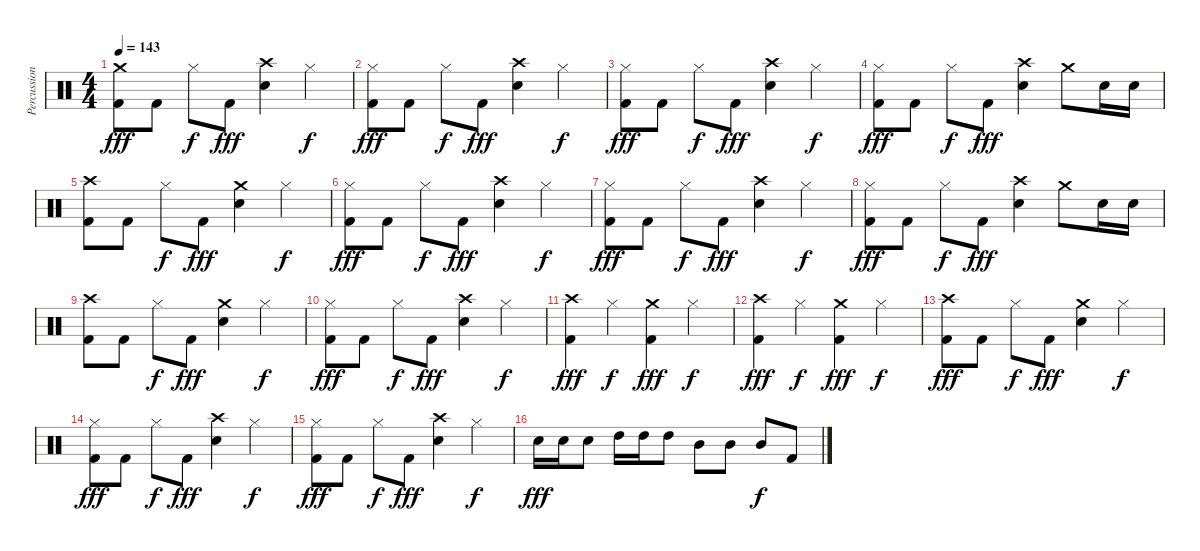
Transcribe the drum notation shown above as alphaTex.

\track ("Percussion" "Percussion") {instrument percussion}
\staff {score}
\articulation defaults
\ts (4 4)
\tempo 143
\clef neutral
\ks c
("Crash medium (hit)" "Kick (hit) 2").8{dy fff} "Kick (hit) 2".8 "Hi-Hat (closed)".8{dy f} "Kick (hit) 2".8{dy fff} ("Crash high (hit)" "Electric Snare (hit)").4 "Hi-Hat (closed)".4{dy f} |
("Hi-Hat (closed)" "Kick (hit) 2").8{dy fff} "Kick (hit) 2".8 "Hi-Hat (closed)".8{dy f} "Kick (hit) 2".8{dy fff} ("Crash high (hit)" "Electric Snare (hit)").4 "Hi-Hat (closed)".4{dy f} |
("Hi-Hat (closed)" "Kick (hit) 2").8{dy fff} "Kick (hit) 2".8 "Hi-Hat (closed)".8{dy f} "Kick (hit) 2".8{dy fff} ("Crash high (hit)" "Electric Snare (hit)").4 "Hi-Hat (closed)".4{dy f} |
("Hi-Hat (closed)" "Kick (hit) 2").8{dy fff} "Kick (hit) 2".8 "Hi-Hat (closed)".8{dy f} "Kick (hit) 2".8{dy fff} ("Crash high (hit)" "Electric Snare (hit)").4 "Crash medium (hit)".8 "Electric Snare (hit)".16 "Electric Snare (hit)".16 |
("Crash high (hit)" "Kick (hit) 2").8 "Kick (hit) 2".8 "Hi-Hat (closed)".8{dy f} "Kick (hit) 2".8{dy fff} ("Crash medium (hit)" "Electric Snare (hit)").4 "Hi-Hat (closed)".4{dy f} |
("Hi-Hat (closed)" "Kick (hit) 2").8{dy fff} "Kick (hit) 2".8 "Hi-Hat (closed)".8{dy f} "Kick (hit) 2".8{dy fff} ("Crash high (hit)" "Electric Snare (hit)").4 "Hi-Hat (closed)".4{dy f} |
("Hi-Hat (closed)" "Kick (hit) 2").8{dy fff} "Kick (hit) 2".8 "Hi-Hat (closed)".8{dy f} "Kick (hit) 2".8{dy fff} ("Crash high (hit)" "Electric Snare (hit)").4 "Hi-Hat (closed)".4{dy f} |
("Hi-Hat (closed)" "Kick (hit) 2").8{dy fff} "Kick (hit) 2".8 "Hi-Hat (closed)".8{dy f} "Kick (hit) 2".8{dy fff} ("Crash high (hit)" "Electric Snare (hit)").4 "Crash medium (hit)".8 "Electric Snare (hit)".16 "Electric Snare (hit)".16 |
("Crash high (hit)" "Kick (hit) 2").8 "Kick (hit) 2".8 "Hi-Hat (closed)".8{dy f} "Kick (hit) 2".8{dy fff} ("Crash medium (hit)" "Electric Snare (hit)").4 "Hi-Hat (closed)".4{dy f} |
("Hi-Hat (closed)" "Kick (hit) 2").8{dy fff} "Kick (hit) 2".8 "Hi-Hat (closed)".8{dy f} "Kick (hit) 2".8{dy fff} ("Crash high (hit)" "Electric Snare (hit)").4 "Hi-Hat (closed)".4{dy f} |
("Crash high (hit)" "Kick (hit) 2").4{dy fff} "Hi-Hat (closed)".4{dy f} ("Crash medium (hit)" "Kick (hit) 2").4{dy fff} "Hi-Hat (closed)".4{dy f} |
("Crash high (hit)" "Kick (hit) 2").4{dy fff} "Hi-Hat (closed)".4{dy f} ("Crash medium (hit)" "Kick (hit) 2").4{dy fff} "Hi-Hat (closed)".4{dy f} |
("Crash high (hit)" "Kick (hit) 2").8{dy fff} "Kick (hit) 2".8 "Hi-Hat (closed)".8{dy f} "Kick (hit) 2".8{dy fff} ("Crash medium (hit)" "Electric Snare (hit)").4 "Hi-Hat (closed)".4{dy f} |
("Hi-Hat (closed)" "Kick (hit) 2").8{dy fff} "Kick (hit) 2".8 "Hi-Hat (closed)".8{dy f} "Kick (hit) 2".8{dy fff} ("Crash high (hit)" "Electric Snare (hit)").4 "Hi-Hat (closed)".4{dy f} |
("Hi-Hat (closed)" "Kick (hit) 2").8{dy fff} "Kick (hit) 2".8 "Hi-Hat (closed)".8{dy f} "Kick (hit) 2".8{dy fff} ("Crash high (hit)" "Electric Snare (hit)").4 "Hi-Hat (closed)".4{dy f} |
"Electric Snare (hit)".16{dy fff} "Electric Snare (hit)".16 "Electric Snare (hit)".8 "High Tom (hit)".16 "High Tom (hit)".16 "High Tom (hit)".8 "Mid Tom (hit)".8 "Mid Tom (hit)".8 "Mid Tom (hit)".8{dy f} "Kick (hit) 2".8
